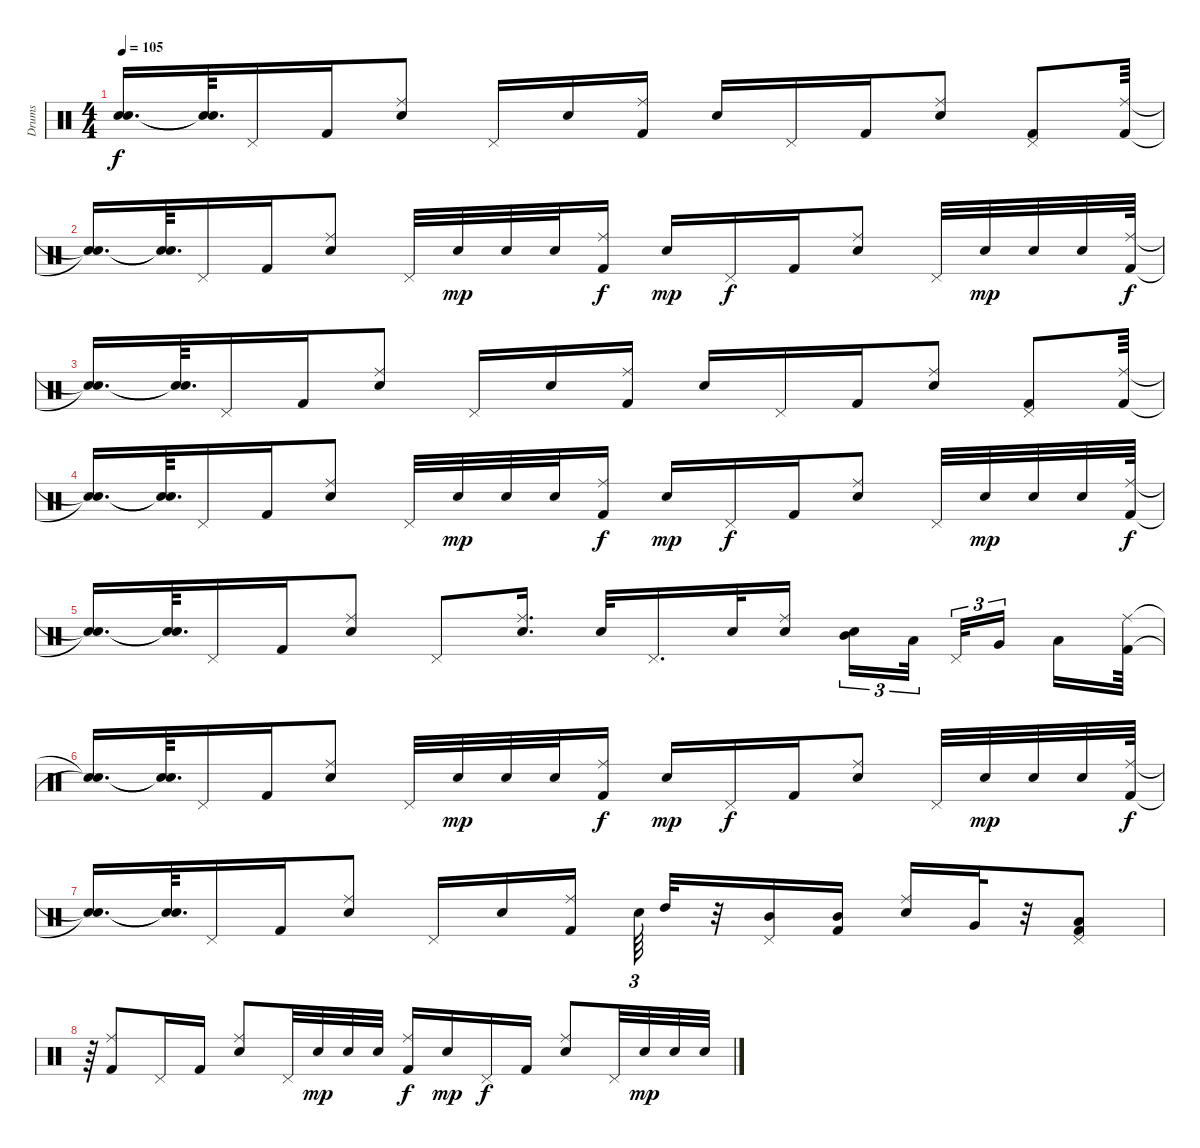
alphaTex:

\track ("Drums" "Drums") {instrument percussion}
\staff {score}
\articulation defaults
\ts (4 4)
\tempo 105
\clef neutral
\ks c
("Snare (hit)"{t} "Snare (hit)"{t}).16{d dy f} ("Snare (hit)"{t} "Snare (hit)"{t}).64{d} "Pedal Hi-Hat (hit)".16 "Kick (hit) 2".16 ("Electric Snare (hit)" "Ride (middle)").8 "Pedal Hi-Hat (hit)".16 "Electric Snare (hit)".16 ("Kick (hit) 2" "Ride (middle)").16 "Electric Snare (hit)".16 "Pedal Hi-Hat (hit)".16 "Kick (hit) 2".16 ("Electric Snare (hit)" "Ride (middle)").8 ("Kick (hit) 2" "Pedal Hi-Hat (hit)").8 ("Kick (hit) 2" "Ride (middle)").64 |
("Snare (hit)"{t} "Snare (hit)"{t}).16{d} ("Snare (hit)"{t} "Snare (hit)"{t}).64{d} "Pedal Hi-Hat (hit)".16 "Kick (hit) 2".16 ("Electric Snare (hit)" "Ride (middle)").8 "Pedal Hi-Hat (hit)".32 "Electric Snare (hit)".32{dy mp} "Electric Snare (hit)".32 "Electric Snare (hit)".32 ("Kick (hit) 2" "Ride (middle)").16{dy f} "Electric Snare (hit)".16{dy mp} "Pedal Hi-Hat (hit)".16{dy f} "Kick (hit) 2".16 ("Electric Snare (hit)" "Ride (middle)").8 "Pedal Hi-Hat (hit)".32 "Electric Snare (hit)".32{dy mp} "Electric Snare (hit)".32 "Electric Snare (hit)".32 ("Kick (hit) 2" "Ride (middle)").64{dy f} |
("Snare (hit)"{t} "Snare (hit)"{t}).16{d} ("Snare (hit)"{t} "Snare (hit)"{t}).64{d} "Pedal Hi-Hat (hit)".16 "Kick (hit) 2".16 ("Electric Snare (hit)" "Ride (middle)").8 "Pedal Hi-Hat (hit)".16 "Electric Snare (hit)".16 ("Kick (hit) 2" "Ride (middle)").16 "Electric Snare (hit)".16 "Pedal Hi-Hat (hit)".16 "Kick (hit) 2".16 ("Electric Snare (hit)" "Ride (middle)").8 ("Kick (hit) 2" "Pedal Hi-Hat (hit)").8 ("Kick (hit) 2" "Ride (middle)").64 |
("Snare (hit)"{t} "Snare (hit)"{t}).16{d} ("Snare (hit)"{t} "Snare (hit)"{t}).64{d} "Pedal Hi-Hat (hit)".16 "Kick (hit) 2".16 ("Electric Snare (hit)" "Ride (middle)").8 "Pedal Hi-Hat (hit)".32 "Electric Snare (hit)".32{dy mp} "Electric Snare (hit)".32 "Electric Snare (hit)".32 ("Kick (hit) 2" "Ride (middle)").16{dy f} "Electric Snare (hit)".16{dy mp} "Pedal Hi-Hat (hit)".16{dy f} "Kick (hit) 2".16 ("Electric Snare (hit)" "Ride (middle)").8 "Pedal Hi-Hat (hit)".32 "Electric Snare (hit)".32{dy mp} "Electric Snare (hit)".32 "Electric Snare (hit)".32 ("Kick (hit) 2" "Ride (middle)").64{dy f} |
("Snare (hit)"{t} "Snare (hit)"{t}).16{d} ("Snare (hit)"{t} "Snare (hit)"{t}).64{d} "Pedal Hi-Hat (hit)".16 "Kick (hit) 2".16 ("Electric Snare (hit)" "Ride (middle)").8 "Pedal Hi-Hat (hit)".8 ("Electric Snare (hit)" "Ride (middle)").16{d} "Electric Snare (hit)".32 "Pedal Hi-Hat (hit)".16{d} "Electric Snare (hit)".32 ("Electric Snare (hit)" "Ride (middle)").16 ("Electric Snare (hit)" "Mid Tom (hit)").16{tu (3 2)} "Low Tom (hit)".32{tu (3 2)} "Pedal Hi-Hat (hit)".32{tu (3 2)} "Very Low Tom (hit)".16{tu (3 2)} "Low Floor Tom (hit)".16 ("Kick (hit) 2" "Ride (middle)").64 |
("Snare (hit)"{t} "Snare (hit)"{t}).16{d} ("Snare (hit)"{t} "Snare (hit)"{t}).64{d} "Pedal Hi-Hat (hit)".16 "Kick (hit) 2".16 ("Electric Snare (hit)" "Ride (middle)").8 "Pedal Hi-Hat (hit)".32 "Electric Snare (hit)".32{dy mp} "Electric Snare (hit)".32 "Electric Snare (hit)".32 ("Kick (hit) 2" "Ride (middle)").16{dy f} "Electric Snare (hit)".16{dy mp} "Pedal Hi-Hat (hit)".16{dy f} "Kick (hit) 2".16 ("Electric Snare (hit)" "Ride (middle)").8 "Pedal Hi-Hat (hit)".32 "Electric Snare (hit)".32{dy mp} "Electric Snare (hit)".32 "Electric Snare (hit)".32 ("Kick (hit) 2" "Ride (middle)").64{dy f} |
("Snare (hit)"{t} "Snare (hit)"{t}).16{d} ("Snare (hit)"{t} "Snare (hit)"{t}).64{d} "Pedal Hi-Hat (hit)".16 "Kick (hit) 2".16 ("Electric Snare (hit)" "Ride (middle)").8 "Pedal Hi-Hat (hit)".16 "Electric Snare (hit)".16 ("Kick (hit) 2" "Ride (middle)").16 "Electric Snare (hit)".64{tu (3 2)} "High Tom (hit)".32 r.32 ("Pedal Hi-Hat (hit)" "Mid Tom (hit)").16 ("Kick (hit) 2" "Mid Tom (hit)").16 ("Electric Snare (hit)" "Ride (middle)").16 "Very Low Tom (hit)".32 r.32 ("Kick (hit) 2" "Pedal Hi-Hat (hit)" "Low Tom (hit)").8 |
r.64 ("Kick (hit) 2" "Ride (middle)").8 "Pedal Hi-Hat (hit)".16 "Kick (hit) 2".16 ("Electric Snare (hit)" "Ride (middle)").8 "Pedal Hi-Hat (hit)".32 "Electric Snare (hit)".32{dy mp} "Electric Snare (hit)".32 "Electric Snare (hit)".32 ("Kick (hit) 2" "Ride (middle)").16{dy f} "Electric Snare (hit)".16{dy mp} "Pedal Hi-Hat (hit)".16{dy f} "Kick (hit) 2".16 ("Electric Snare (hit)" "Ride (middle)").8 "Pedal Hi-Hat (hit)".32 "Electric Snare (hit)".32{dy mp} "Electric Snare (hit)".32 "Electric Snare (hit)".32
